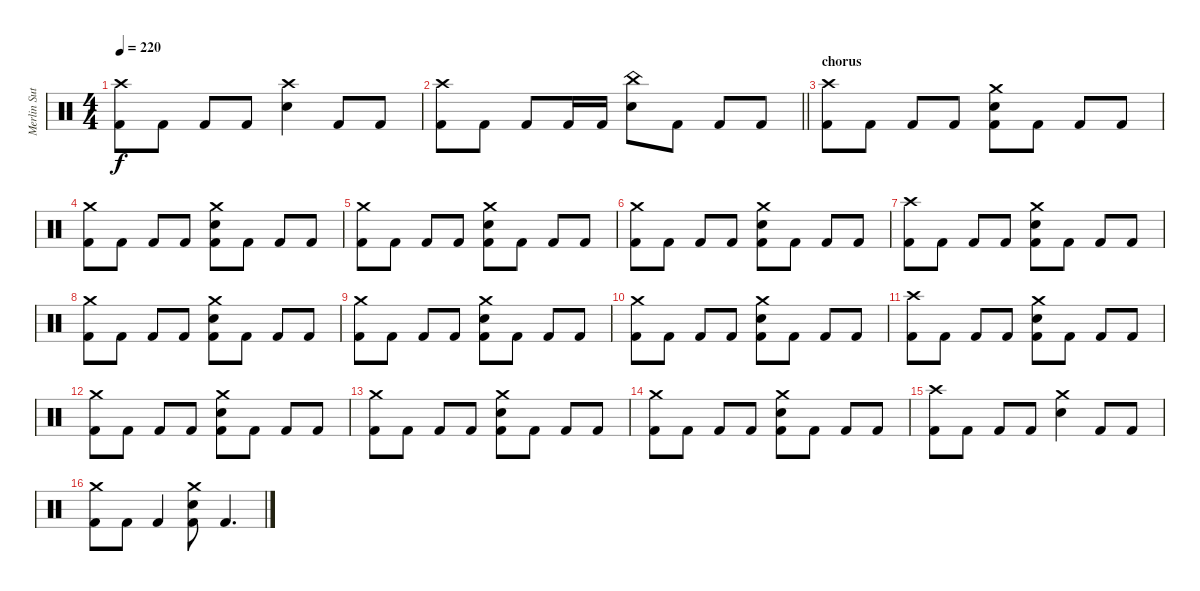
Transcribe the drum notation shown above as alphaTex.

\track ("Merlin Sutter" "Merlin Sut") {instrument percussion}
\staff {score}
\articulation defaults
\ts (4 4)
\tempo 220
\clef neutral
\ks c
("Crash high (hit)" "Kick (hit) 2").8{dy f} "Kick (hit) 2".8 "Kick (hit) 2".8 "Kick (hit) 2".8 ("Crash high (hit)" "Snare (hit) 2").4 "Kick (hit) 2".8 "Kick (hit) 2".8 |
\barLineRight lightlight
("Crash high (hit)" "Kick (hit) 2").8 "Kick (hit) 2".8 "Kick (hit) 2".8 "Kick (hit) 2".16 "Kick (hit) 2".16 ("China (hit)" "Snare (hit) 2").8 "Kick (hit) 2".8 "Kick (hit) 2".8 "Kick (hit) 2".8 |
\section ("" "chorus")
("Crash high (hit)" "Kick (hit) 2").8 "Kick (hit) 2".8 "Kick (hit) 2".8 "Kick (hit) 2".8 ("Crash medium (hit)" "Snare (hit) 2" "Kick (hit) 2").8 "Kick (hit) 2".8 "Kick (hit) 2".8 "Kick (hit) 2".8 |
("Crash medium (hit)" "Kick (hit) 2").8 "Kick (hit) 2".8 "Kick (hit) 2".8 "Kick (hit) 2".8 ("Crash medium (hit)" "Snare (hit) 2" "Kick (hit) 2").8 "Kick (hit) 2".8 "Kick (hit) 2".8 "Kick (hit) 2".8 |
("Crash medium (hit)" "Kick (hit) 2").8 "Kick (hit) 2".8 "Kick (hit) 2".8 "Kick (hit) 2".8 ("Crash medium (hit)" "Snare (hit) 2" "Kick (hit) 2").8 "Kick (hit) 2".8 "Kick (hit) 2".8 "Kick (hit) 2".8 |
("Crash medium (hit)" "Kick (hit) 2").8 "Kick (hit) 2".8 "Kick (hit) 2".8 "Kick (hit) 2".8 ("Crash medium (hit)" "Snare (hit) 2" "Kick (hit) 2").8 "Kick (hit) 2".8 "Kick (hit) 2".8 "Kick (hit) 2".8 |
("Crash high (hit)" "Kick (hit) 2").8 "Kick (hit) 2".8 "Kick (hit) 2".8 "Kick (hit) 2".8 ("Crash medium (hit)" "Snare (hit) 2" "Kick (hit) 2").8 "Kick (hit) 2".8 "Kick (hit) 2".8 "Kick (hit) 2".8 |
("Crash medium (hit)" "Kick (hit) 2").8 "Kick (hit) 2".8 "Kick (hit) 2".8 "Kick (hit) 2".8 ("Crash medium (hit)" "Snare (hit) 2" "Kick (hit) 2").8 "Kick (hit) 2".8 "Kick (hit) 2".8 "Kick (hit) 2".8 |
("Crash medium (hit)" "Kick (hit) 2").8 "Kick (hit) 2".8 "Kick (hit) 2".8 "Kick (hit) 2".8 ("Crash medium (hit)" "Snare (hit) 2" "Kick (hit) 2").8 "Kick (hit) 2".8 "Kick (hit) 2".8 "Kick (hit) 2".8 |
("Crash medium (hit)" "Kick (hit) 2").8 "Kick (hit) 2".8 "Kick (hit) 2".8 "Kick (hit) 2".8 ("Crash medium (hit)" "Snare (hit) 2" "Kick (hit) 2").8 "Kick (hit) 2".8 "Kick (hit) 2".8 "Kick (hit) 2".8 |
("Crash high (hit)" "Kick (hit) 2").8 "Kick (hit) 2".8 "Kick (hit) 2".8 "Kick (hit) 2".8 ("Crash medium (hit)" "Snare (hit) 2" "Kick (hit) 2").8 "Kick (hit) 2".8 "Kick (hit) 2".8 "Kick (hit) 2".8 |
("Crash medium (hit)" "Kick (hit) 2").8 "Kick (hit) 2".8 "Kick (hit) 2".8 "Kick (hit) 2".8 ("Crash medium (hit)" "Snare (hit) 2" "Kick (hit) 2").8 "Kick (hit) 2".8 "Kick (hit) 2".8 "Kick (hit) 2".8 |
("Crash medium (hit)" "Kick (hit) 2").8 "Kick (hit) 2".8 "Kick (hit) 2".8 "Kick (hit) 2".8 ("Crash medium (hit)" "Snare (hit) 2" "Kick (hit) 2").8 "Kick (hit) 2".8 "Kick (hit) 2".8 "Kick (hit) 2".8 |
("Crash medium (hit)" "Kick (hit) 2").8 "Kick (hit) 2".8 "Kick (hit) 2".8 "Kick (hit) 2".8 ("Crash medium (hit)" "Snare (hit) 2" "Kick (hit) 2").8 "Kick (hit) 2".8 "Kick (hit) 2".8 "Kick (hit) 2".8 |
("Crash high (hit)" "Kick (hit) 2").8 "Kick (hit) 2".8 "Kick (hit) 2".8 "Kick (hit) 2".8 ("Crash medium (hit)" "Snare (hit) 2").4 "Kick (hit) 2".8 "Kick (hit) 2".8 |
("Crash medium (hit)" "Kick (hit) 2").8 "Kick (hit) 2".8 "Kick (hit) 2".4 ("Crash medium (hit)" "Snare (hit) 2" "Kick (hit) 2").8 "Kick (hit) 2".4{d}
